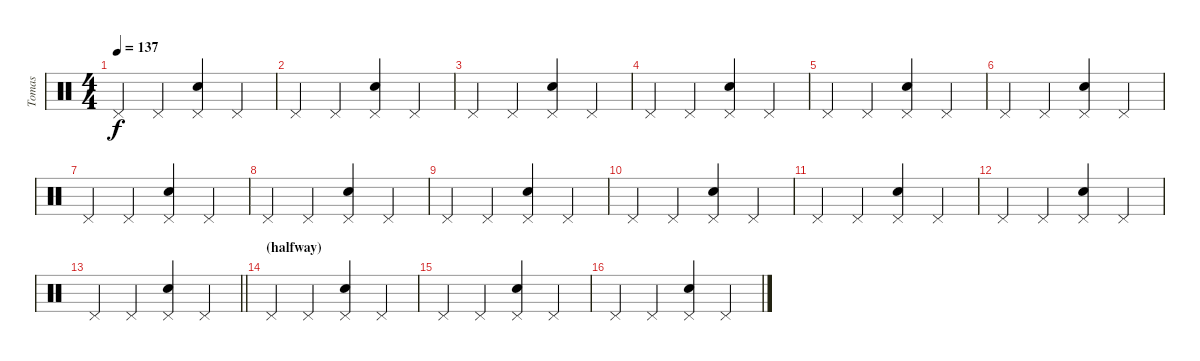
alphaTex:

\track ("Tomas" "Tomas") {instrument percussion}
\staff {score}
\articulation defaults
\ts (4 4)
\tempo 137
\clef neutral
\ks c "Pedal Hi-Hat (hit)".4{dy f} "Pedal Hi-Hat (hit)".4
("Pedal Hi-Hat (hit)" "Electric Snare (hit)").4 "Pedal Hi-Hat (hit)".4 |
"Pedal Hi-Hat (hit)".4 "Pedal Hi-Hat (hit)".4 ("Pedal Hi-Hat (hit)" "Electric Snare (hit)").4 "Pedal Hi-Hat (hit)".4 |
"Pedal Hi-Hat (hit)".4 "Pedal Hi-Hat (hit)".4 ("Pedal Hi-Hat (hit)" "Electric Snare (hit)").4 "Pedal Hi-Hat (hit)".4 |
"Pedal Hi-Hat (hit)".4 "Pedal Hi-Hat (hit)".4 ("Pedal Hi-Hat (hit)" "Electric Snare (hit)").4 "Pedal Hi-Hat (hit)".4 |
"Pedal Hi-Hat (hit)".4 "Pedal Hi-Hat (hit)".4 ("Pedal Hi-Hat (hit)" "Electric Snare (hit)").4 "Pedal Hi-Hat (hit)".4 |
"Pedal Hi-Hat (hit)".4 "Pedal Hi-Hat (hit)".4 ("Pedal Hi-Hat (hit)" "Electric Snare (hit)").4 "Pedal Hi-Hat (hit)".4 |
"Pedal Hi-Hat (hit)".4 "Pedal Hi-Hat (hit)".4 ("Pedal Hi-Hat (hit)" "Electric Snare (hit)").4 "Pedal Hi-Hat (hit)".4 |
"Pedal Hi-Hat (hit)".4 "Pedal Hi-Hat (hit)".4 ("Pedal Hi-Hat (hit)" "Electric Snare (hit)").4 "Pedal Hi-Hat (hit)".4 |
"Pedal Hi-Hat (hit)".4 "Pedal Hi-Hat (hit)".4 ("Pedal Hi-Hat (hit)" "Electric Snare (hit)").4 "Pedal Hi-Hat (hit)".4 |
"Pedal Hi-Hat (hit)".4 "Pedal Hi-Hat (hit)".4 ("Pedal Hi-Hat (hit)" "Electric Snare (hit)").4 "Pedal Hi-Hat (hit)".4 |
"Pedal Hi-Hat (hit)".4 "Pedal Hi-Hat (hit)".4 ("Pedal Hi-Hat (hit)" "Electric Snare (hit)").4 "Pedal Hi-Hat (hit)".4 |
"Pedal Hi-Hat (hit)".4 "Pedal Hi-Hat (hit)".4 ("Pedal Hi-Hat (hit)" "Electric Snare (hit)").4 "Pedal Hi-Hat (hit)".4 |
\barLineRight lightlight "Pedal Hi-Hat (hit)".4 "Pedal Hi-Hat (hit)".4
("Pedal Hi-Hat (hit)" "Electric Snare (hit)").4 "Pedal Hi-Hat (hit)".4 |
\section ("" "(halfway)")
"Pedal Hi-Hat (hit)".4 "Pedal Hi-Hat (hit)".4 ("Pedal Hi-Hat (hit)" "Electric Snare (hit)").4 "Pedal Hi-Hat (hit)".4 |
"Pedal Hi-Hat (hit)".4 "Pedal Hi-Hat (hit)".4 ("Pedal Hi-Hat (hit)" "Electric Snare (hit)").4 "Pedal Hi-Hat (hit)".4 |
"Pedal Hi-Hat (hit)".4 "Pedal Hi-Hat (hit)".4 ("Pedal Hi-Hat (hit)" "Electric Snare (hit)").4 "Pedal Hi-Hat (hit)".4
